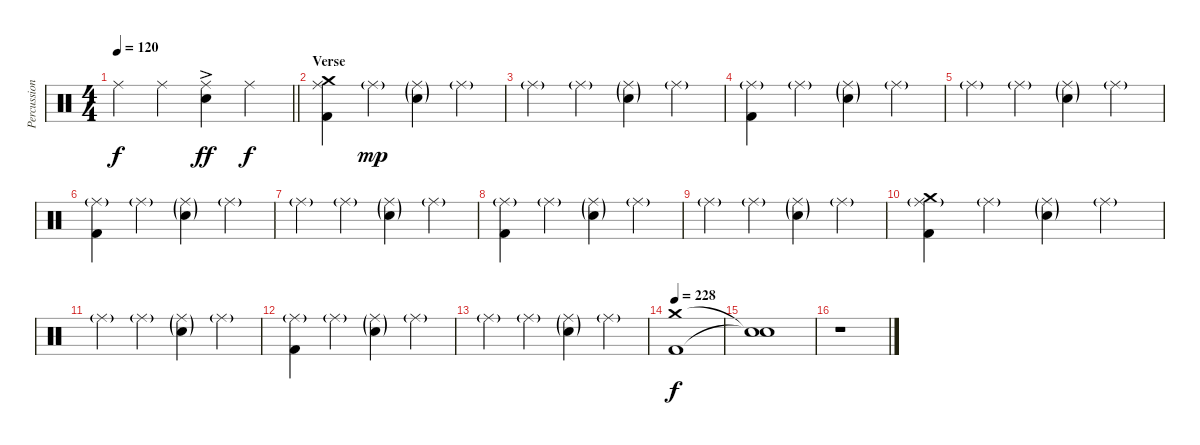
\track ("Percussion" "Percussion") {instrument percussion}
\staff {score}
\articulation defaults
\ts (4 4)
\tempo 120
\clef neutral
\barLineRight lightlight
\ks c "Ride (middle)".4{dy f} "Ride (middle)".4
("Ride (middle)" "Electric Snare (hit)"{ac}).4{dy ff} "Ride (middle)".4{dy f} |
\section ("" "Verse")
("Crash medium (hit)" "Ride (middle)" "Kick (hit) 2").4 "Ride (middle)"{g}.4{dy mp} ("Ride (middle)"{g} "Electric Snare (hit)"{g}).4 "Ride (middle)"{g}.4 |
"Ride (middle)"{g}.4 "Ride (middle)"{g}.4 ("Ride (middle)"{g} "Electric Snare (hit)"{g}).4 "Ride (middle)"{g}.4 |
("Ride (middle)"{g} "Kick (hit) 2").4 "Ride (middle)"{g}.4 ("Ride (middle)"{g} "Electric Snare (hit)"{g}).4 "Ride (middle)"{g}.4 |
"Ride (middle)"{g}.4 "Ride (middle)"{g}.4 ("Ride (middle)"{g} "Electric Snare (hit)"{g}).4 "Ride (middle)"{g}.4 |
("Ride (middle)"{g} "Kick (hit) 2").4 "Ride (middle)"{g}.4 ("Ride (middle)"{g} "Electric Snare (hit)"{g}).4 "Ride (middle)"{g}.4 |
"Ride (middle)"{g}.4 "Ride (middle)"{g}.4 ("Ride (middle)"{g} "Electric Snare (hit)"{g}).4 "Ride (middle)"{g}.4 |
("Ride (middle)"{g} "Kick (hit) 2").4 "Ride (middle)"{g}.4 ("Ride (middle)"{g} "Electric Snare (hit)"{g}).4 "Ride (middle)"{g}.4 |
"Ride (middle)"{g}.4 "Ride (middle)"{g}.4 ("Ride (middle)"{g} "Electric Snare (hit)"{g}).4 "Ride (middle)"{g}.4 |
("Crash medium (hit)" "Ride (middle)"{g} "Kick (hit) 2").4 "Ride (middle)"{g}.4 ("Ride (middle)"{g} "Electric Snare (hit)"{g}).4 "Ride (middle)"{g}.4 |
"Ride (middle)"{g}.4 "Ride (middle)"{g}.4 ("Ride (middle)"{g} "Electric Snare (hit)"{g}).4 "Ride (middle)"{g}.4 |
("Ride (middle)"{g} "Kick (hit) 2").4 "Ride (middle)"{g}.4 ("Ride (middle)"{g} "Electric Snare (hit)"{g}).4 "Ride (middle)"{g}.4 |
"Ride (middle)"{g}.4 "Ride (middle)"{g}.4 ("Ride (middle)"{g} "Electric Snare (hit)"{g}).4 "Ride (middle)"{g}.4 |
\tempo 228
("Crash medium (hit)" "Kick (hit) 2").1{dy f} |
("Snare (hit)"{t} "Snare (hit)"{t}).1 |
r.1
